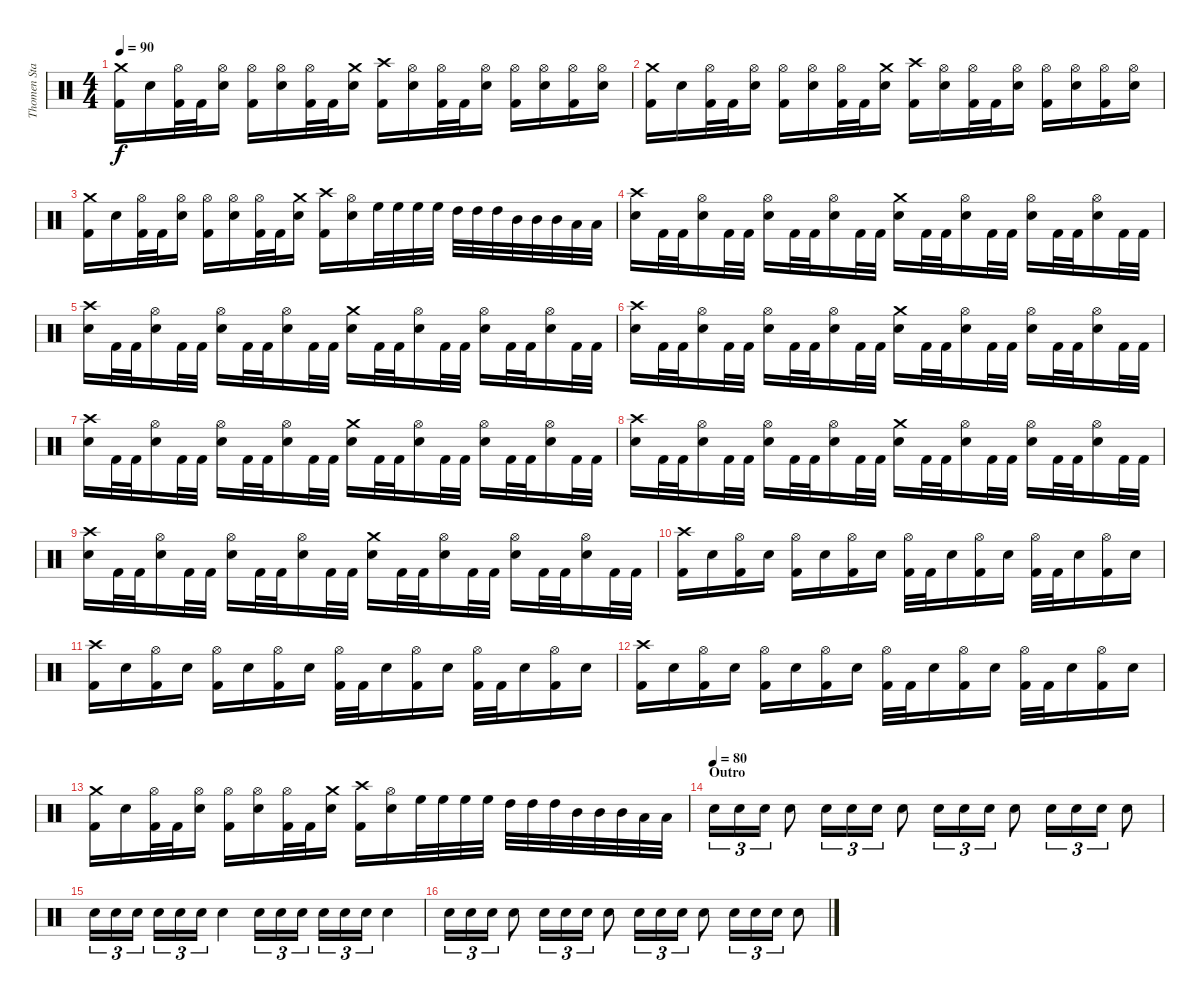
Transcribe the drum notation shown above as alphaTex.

\track ("Thomen Stauch" "Thomen Sta") {instrument percussion}
\staff {score}
\articulation defaults
\ts (4 4)
\tempo 90
\clef neutral
\ks c
("Kick (hit) 2" "Crash medium (hit)").16{dy f} "Snare (hit) 2".16 ("Kick (hit) 2" "Hi-Hat (open)").32 "Kick (hit) 2".32 ("Snare (hit) 2" "Hi-Hat (open)").16 ("Kick (hit) 2" "Hi-Hat (open)").16 ("Snare (hit) 2" "Hi-Hat (open)").16 ("Kick (hit) 2" "Hi-Hat (open)").32 "Kick (hit) 2".32 ("Snare (hit) 2" "Crash medium (hit)").16 ("Kick (hit) 2" "Crash high (hit)").16 ("Snare (hit) 2" "Hi-Hat (open)").16 ("Kick (hit) 2" "Hi-Hat (open)").32 "Kick (hit) 2".32 ("Snare (hit) 2" "Hi-Hat (open)").16 ("Kick (hit) 2" "Hi-Hat (open)").16 ("Snare (hit) 2" "Hi-Hat (open)").16 ("Kick (hit) 2" "Hi-Hat (open)").16 ("Snare (hit) 2" "Hi-Hat (open)").16 |
("Kick (hit) 2" "Crash medium (hit)").16 "Snare (hit) 2".16 ("Kick (hit) 2" "Hi-Hat (open)").32 "Kick (hit) 2".32 ("Snare (hit) 2" "Hi-Hat (open)").16 ("Kick (hit) 2" "Hi-Hat (open)").16 ("Snare (hit) 2" "Hi-Hat (open)").16 ("Kick (hit) 2" "Hi-Hat (open)").32 "Kick (hit) 2".32 ("Snare (hit) 2" "Crash medium (hit)").16 ("Kick (hit) 2" "Crash high (hit)").16 ("Snare (hit) 2" "Hi-Hat (open)").16 ("Kick (hit) 2" "Hi-Hat (open)").32 "Kick (hit) 2".32 ("Snare (hit) 2" "Hi-Hat (open)").16 ("Kick (hit) 2" "Hi-Hat (open)").16 ("Snare (hit) 2" "Hi-Hat (open)").16 ("Kick (hit) 2" "Hi-Hat (open)").16 ("Snare (hit) 2" "Hi-Hat (open)").16 |
("Kick (hit) 2" "Crash medium (hit)").16 "Snare (hit) 2".16 ("Kick (hit) 2" "Hi-Hat (open)").32 "Kick (hit) 2".32 ("Snare (hit) 2" "Hi-Hat (open)").16 ("Kick (hit) 2" "Hi-Hat (open)").16 ("Snare (hit) 2" "Hi-Hat (open)").16 ("Kick (hit) 2" "Hi-Hat (open)").32 "Kick (hit) 2".32 ("Snare (hit) 2" "Crash medium (hit)").16 ("Kick (hit) 2" "Crash high (hit)").16 ("Snare (hit) 2" "Hi-Hat (open)").16 "High Floor Tom (hit)".32 "High Floor Tom (hit)".32 "High Floor Tom (hit)".32 "High Floor Tom (hit)".32 "High Tom (hit)".32 "High Tom (hit)".32 "High Tom (hit)".32 "Mid Tom (hit)".32 "Mid Tom (hit)".32 "Mid Tom (hit)".32 "Low Tom (hit)".32 "Low Tom (hit)".32 |
("Snare (hit) 2" "Crash high (hit)").16 "Kick (hit) 2".32 "Kick (hit) 2".32 ("Snare (hit) 2" "Hi-Hat (open)").16 "Kick (hit) 2".32 "Kick (hit) 2".32 ("Snare (hit) 2" "Hi-Hat (open)").16 "Kick (hit) 2".32 "Kick (hit) 2".32 ("Snare (hit) 2" "Hi-Hat (open)").16 "Kick (hit) 2".32 "Kick (hit) 2".32 ("Snare (hit) 2" "Crash medium (hit)").16 "Kick (hit) 2".32 "Kick (hit) 2".32 ("Snare (hit) 2" "Hi-Hat (open)").16 "Kick (hit) 2".32 "Kick (hit) 2".32 ("Snare (hit) 2" "Hi-Hat (open)").16 "Kick (hit) 2".32 "Kick (hit) 2".32 ("Snare (hit) 2" "Hi-Hat (open)").16 "Kick (hit) 2".32 "Kick (hit) 2".32 |
("Snare (hit) 2" "Crash high (hit)").16 "Kick (hit) 2".32 "Kick (hit) 2".32 ("Snare (hit) 2" "Hi-Hat (open)").16 "Kick (hit) 2".32 "Kick (hit) 2".32 ("Snare (hit) 2" "Hi-Hat (open)").16 "Kick (hit) 2".32 "Kick (hit) 2".32 ("Snare (hit) 2" "Hi-Hat (open)").16 "Kick (hit) 2".32 "Kick (hit) 2".32 ("Snare (hit) 2" "Crash medium (hit)").16 "Kick (hit) 2".32 "Kick (hit) 2".32 ("Snare (hit) 2" "Hi-Hat (open)").16 "Kick (hit) 2".32 "Kick (hit) 2".32 ("Snare (hit) 2" "Hi-Hat (open)").16 "Kick (hit) 2".32 "Kick (hit) 2".32 ("Snare (hit) 2" "Hi-Hat (open)").16 "Kick (hit) 2".32 "Kick (hit) 2".32 |
("Snare (hit) 2" "Crash high (hit)").16 "Kick (hit) 2".32 "Kick (hit) 2".32 ("Snare (hit) 2" "Hi-Hat (open)").16 "Kick (hit) 2".32 "Kick (hit) 2".32 ("Snare (hit) 2" "Hi-Hat (open)").16 "Kick (hit) 2".32 "Kick (hit) 2".32 ("Snare (hit) 2" "Hi-Hat (open)").16 "Kick (hit) 2".32 "Kick (hit) 2".32 ("Snare (hit) 2" "Crash medium (hit)").16 "Kick (hit) 2".32 "Kick (hit) 2".32 ("Snare (hit) 2" "Hi-Hat (open)").16 "Kick (hit) 2".32 "Kick (hit) 2".32 ("Snare (hit) 2" "Hi-Hat (open)").16 "Kick (hit) 2".32 "Kick (hit) 2".32 ("Snare (hit) 2" "Hi-Hat (open)").16 "Kick (hit) 2".32 "Kick (hit) 2".32 |
("Snare (hit) 2" "Crash high (hit)").16 "Kick (hit) 2".32 "Kick (hit) 2".32 ("Snare (hit) 2" "Hi-Hat (open)").16 "Kick (hit) 2".32 "Kick (hit) 2".32 ("Snare (hit) 2" "Hi-Hat (open)").16 "Kick (hit) 2".32 "Kick (hit) 2".32 ("Snare (hit) 2" "Hi-Hat (open)").16 "Kick (hit) 2".32 "Kick (hit) 2".32 ("Snare (hit) 2" "Crash medium (hit)").16 "Kick (hit) 2".32 "Kick (hit) 2".32 ("Snare (hit) 2" "Hi-Hat (open)").16 "Kick (hit) 2".32 "Kick (hit) 2".32 ("Snare (hit) 2" "Hi-Hat (open)").16 "Kick (hit) 2".32 "Kick (hit) 2".32 ("Snare (hit) 2" "Hi-Hat (open)").16 "Kick (hit) 2".32 "Kick (hit) 2".32 |
("Snare (hit) 2" "Crash high (hit)").16 "Kick (hit) 2".32 "Kick (hit) 2".32 ("Snare (hit) 2" "Hi-Hat (open)").16 "Kick (hit) 2".32 "Kick (hit) 2".32 ("Snare (hit) 2" "Hi-Hat (open)").16 "Kick (hit) 2".32 "Kick (hit) 2".32 ("Snare (hit) 2" "Hi-Hat (open)").16 "Kick (hit) 2".32 "Kick (hit) 2".32 ("Snare (hit) 2" "Crash medium (hit)").16 "Kick (hit) 2".32 "Kick (hit) 2".32 ("Snare (hit) 2" "Hi-Hat (open)").16 "Kick (hit) 2".32 "Kick (hit) 2".32 ("Snare (hit) 2" "Hi-Hat (open)").16 "Kick (hit) 2".32 "Kick (hit) 2".32 ("Snare (hit) 2" "Hi-Hat (open)").16 "Kick (hit) 2".32 "Kick (hit) 2".32 |
("Snare (hit) 2" "Crash high (hit)").16 "Kick (hit) 2".32 "Kick (hit) 2".32 ("Snare (hit) 2" "Hi-Hat (open)").16 "Kick (hit) 2".32 "Kick (hit) 2".32 ("Snare (hit) 2" "Hi-Hat (open)").16 "Kick (hit) 2".32 "Kick (hit) 2".32 ("Snare (hit) 2" "Hi-Hat (open)").16 "Kick (hit) 2".32 "Kick (hit) 2".32 ("Snare (hit) 2" "Crash medium (hit)").16 "Kick (hit) 2".32 "Kick (hit) 2".32 ("Snare (hit) 2" "Hi-Hat (open)").16 "Kick (hit) 2".32 "Kick (hit) 2".32 ("Snare (hit) 2" "Hi-Hat (open)").16 "Kick (hit) 2".32 "Kick (hit) 2".32 ("Snare (hit) 2" "Hi-Hat (open)").16 "Kick (hit) 2".32 "Kick (hit) 2".32 |
("Kick (hit) 2" "Crash high (hit)").16 "Snare (hit) 2".16 ("Kick (hit) 2" "Hi-Hat (open)").16 "Snare (hit) 2".16 ("Kick (hit) 2" "Hi-Hat (open)").16 "Snare (hit) 2".16 ("Kick (hit) 2" "Hi-Hat (open)").16 "Snare (hit) 2".16 ("Kick (hit) 2" "Hi-Hat (open)").32 "Kick (hit) 2".32 "Snare (hit) 2".16 ("Kick (hit) 2" "Hi-Hat (open)").16 "Snare (hit) 2".16 ("Kick (hit) 2" "Hi-Hat (open)").32 "Kick (hit) 2".32 "Snare (hit) 2".16 ("Kick (hit) 2" "Hi-Hat (open)").16 "Snare (hit) 2".16 |
("Kick (hit) 2" "Crash high (hit)").16 "Snare (hit) 2".16 ("Kick (hit) 2" "Hi-Hat (open)").16 "Snare (hit) 2".16 ("Kick (hit) 2" "Hi-Hat (open)").16 "Snare (hit) 2".16 ("Kick (hit) 2" "Hi-Hat (open)").16 "Snare (hit) 2".16 ("Kick (hit) 2" "Hi-Hat (open)").32 "Kick (hit) 2".32 "Snare (hit) 2".16 ("Kick (hit) 2" "Hi-Hat (open)").16 "Snare (hit) 2".16 ("Kick (hit) 2" "Hi-Hat (open)").32 "Kick (hit) 2".32 "Snare (hit) 2".16 ("Kick (hit) 2" "Hi-Hat (open)").16 "Snare (hit) 2".16 |
("Kick (hit) 2" "Crash high (hit)").16 "Snare (hit) 2".16 ("Kick (hit) 2" "Hi-Hat (open)").16 "Snare (hit) 2".16 ("Kick (hit) 2" "Hi-Hat (open)").16 "Snare (hit) 2".16 ("Kick (hit) 2" "Hi-Hat (open)").16 "Snare (hit) 2".16 ("Kick (hit) 2" "Hi-Hat (open)").32 "Kick (hit) 2".32 "Snare (hit) 2".16 ("Kick (hit) 2" "Hi-Hat (open)").16 "Snare (hit) 2".16 ("Kick (hit) 2" "Hi-Hat (open)").32 "Kick (hit) 2".32 "Snare (hit) 2".16 ("Kick (hit) 2" "Hi-Hat (open)").16 "Snare (hit) 2".16 |
("Kick (hit) 2" "Crash medium (hit)").16 "Snare (hit) 2".16 ("Kick (hit) 2" "Hi-Hat (open)").32 "Kick (hit) 2".32 ("Snare (hit) 2" "Hi-Hat (open)").16 ("Kick (hit) 2" "Hi-Hat (open)").16 ("Snare (hit) 2" "Hi-Hat (open)").16 ("Kick (hit) 2" "Hi-Hat (open)").32 "Kick (hit) 2".32 ("Snare (hit) 2" "Crash medium (hit)").16 ("Kick (hit) 2" "Crash high (hit)").16 ("Snare (hit) 2" "Hi-Hat (open)").16 "High Floor Tom (hit)".32 "High Floor Tom (hit)".32 "High Floor Tom (hit)".32 "High Floor Tom (hit)".32 "High Tom (hit)".32 "High Tom (hit)".32 "High Tom (hit)".32 "Mid Tom (hit)".32 "Mid Tom (hit)".32 "Mid Tom (hit)".32 "Low Tom (hit)".32 "Low Tom (hit)".32 |
\section ("" "Outro")
\tempo (80)
"Snare (hit) 2".16{tu (3 2)} "Snare (hit) 2".16{tu (3 2)} "Snare (hit) 2".16{tu (3 2)} "Snare (hit) 2".8 "Snare (hit) 2".16{tu (3 2)} "Snare (hit) 2".16{tu (3 2)} "Snare (hit) 2".16{tu (3 2)} "Snare (hit) 2".8 "Snare (hit) 2".16{tu (3 2)} "Snare (hit) 2".16{tu (3 2)} "Snare (hit) 2".16{tu (3 2)} "Snare (hit) 2".8 "Snare (hit) 2".16{tu (3 2)} "Snare (hit) 2".16{tu (3 2)} "Snare (hit) 2".16{tu (3 2)} "Snare (hit) 2".8 |
"Snare (hit) 2".16{tu (3 2)} "Snare (hit) 2".16{tu (3 2)} "Snare (hit) 2".16{tu (3 2)} "Snare (hit) 2".16{tu (3 2)} "Snare (hit) 2".16{tu (3 2)} "Snare (hit) 2".16{tu (3 2)} "Snare (hit) 2".4 "Snare (hit) 2".16{tu (3 2)} "Snare (hit) 2".16{tu (3 2)} "Snare (hit) 2".16{tu (3 2)} "Snare (hit) 2".16{tu (3 2)} "Snare (hit) 2".16{tu (3 2)} "Snare (hit) 2".16{tu (3 2)} "Snare (hit) 2".4 |
"Snare (hit) 2".16{tu (3 2)} "Snare (hit) 2".16{tu (3 2)} "Snare (hit) 2".16{tu (3 2)} "Snare (hit) 2".8 "Snare (hit) 2".16{tu (3 2)} "Snare (hit) 2".16{tu (3 2)} "Snare (hit) 2".16{tu (3 2)} "Snare (hit) 2".8 "Snare (hit) 2".16{tu (3 2)} "Snare (hit) 2".16{tu (3 2)} "Snare (hit) 2".16{tu (3 2)} "Snare (hit) 2".8 "Snare (hit) 2".16{tu (3 2)} "Snare (hit) 2".16{tu (3 2)} "Snare (hit) 2".16{tu (3 2)} "Snare (hit) 2".8
